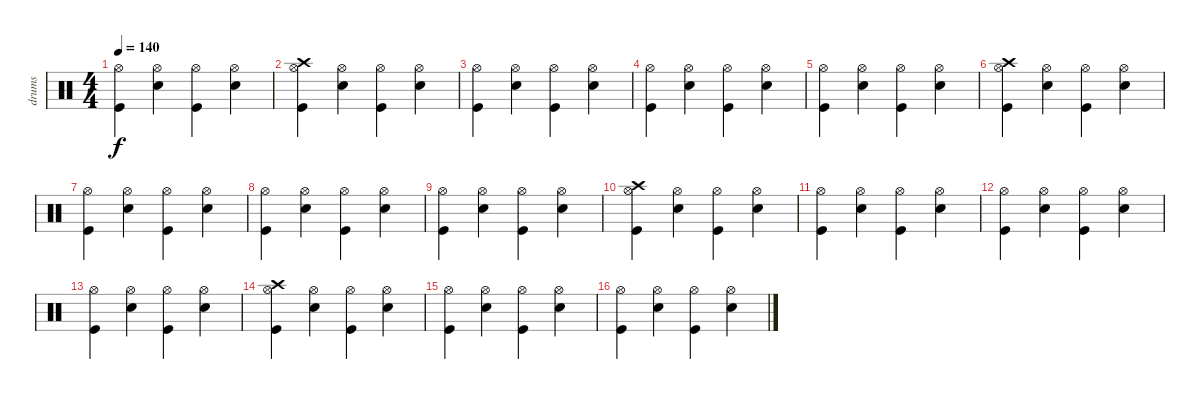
\track ("drums" "drums") {instrument percussion}
\staff {score}
\articulation defaults
\ts (4 4)
\tempo 140
\clef neutral
\ks c
("Hi-Hat (open)" "Kick (hit)").4{dy f} ("Hi-Hat (open)" "Snare (hit) 2").4 ("Hi-Hat (open)" "Kick (hit)").4 ("Hi-Hat (open)" "Snare (hit) 2").4 |
("Hi-Hat (open)" "Kick (hit)" "Crash high (hit)").4 ("Hi-Hat (open)" "Snare (hit) 2").4 ("Hi-Hat (open)" "Kick (hit)").4 ("Hi-Hat (open)" "Snare (hit) 2").4 |
("Hi-Hat (open)" "Kick (hit)").4 ("Hi-Hat (open)" "Snare (hit) 2").4 ("Hi-Hat (open)" "Kick (hit)").4 ("Hi-Hat (open)" "Snare (hit) 2").4 |
("Hi-Hat (open)" "Kick (hit)").4 ("Hi-Hat (open)" "Snare (hit) 2").4 ("Hi-Hat (open)" "Kick (hit)").4 ("Hi-Hat (open)" "Snare (hit) 2").4 |
("Hi-Hat (open)" "Kick (hit)").4 ("Hi-Hat (open)" "Snare (hit) 2").4 ("Hi-Hat (open)" "Kick (hit)").4 ("Hi-Hat (open)" "Snare (hit) 2").4 |
("Hi-Hat (open)" "Kick (hit)" "Crash high (hit)").4 ("Hi-Hat (open)" "Snare (hit) 2").4 ("Hi-Hat (open)" "Kick (hit)").4 ("Hi-Hat (open)" "Snare (hit) 2").4 |
("Hi-Hat (open)" "Kick (hit)").4 ("Hi-Hat (open)" "Snare (hit) 2").4 ("Hi-Hat (open)" "Kick (hit)").4 ("Hi-Hat (open)" "Snare (hit) 2").4 |
("Hi-Hat (open)" "Kick (hit)").4 ("Hi-Hat (open)" "Snare (hit) 2").4 ("Hi-Hat (open)" "Kick (hit)").4 ("Hi-Hat (open)" "Snare (hit) 2").4 |
("Hi-Hat (open)" "Kick (hit)").4 ("Hi-Hat (open)" "Snare (hit) 2").4 ("Hi-Hat (open)" "Kick (hit)").4 ("Hi-Hat (open)" "Snare (hit) 2").4 |
("Hi-Hat (open)" "Kick (hit)" "Crash high (hit)").4 ("Hi-Hat (open)" "Snare (hit) 2").4 ("Hi-Hat (open)" "Kick (hit)").4 ("Hi-Hat (open)" "Snare (hit) 2").4 |
("Hi-Hat (open)" "Kick (hit)").4 ("Hi-Hat (open)" "Snare (hit) 2").4 ("Hi-Hat (open)" "Kick (hit)").4 ("Hi-Hat (open)" "Snare (hit) 2").4 |
("Hi-Hat (open)" "Kick (hit)").4 ("Hi-Hat (open)" "Snare (hit) 2").4 ("Hi-Hat (open)" "Kick (hit)").4 ("Hi-Hat (open)" "Snare (hit) 2").4 |
("Hi-Hat (open)" "Kick (hit)").4 ("Hi-Hat (open)" "Snare (hit) 2").4 ("Hi-Hat (open)" "Kick (hit)").4 ("Hi-Hat (open)" "Snare (hit) 2").4 |
("Hi-Hat (open)" "Kick (hit)" "Crash high (hit)").4 ("Hi-Hat (open)" "Snare (hit) 2").4 ("Hi-Hat (open)" "Kick (hit)").4 ("Hi-Hat (open)" "Snare (hit) 2").4 |
("Hi-Hat (open)" "Kick (hit)").4 ("Hi-Hat (open)" "Snare (hit) 2").4 ("Hi-Hat (open)" "Kick (hit)").4 ("Hi-Hat (open)" "Snare (hit) 2").4 |
("Hi-Hat (open)" "Kick (hit)").4 ("Hi-Hat (open)" "Snare (hit) 2").4 ("Hi-Hat (open)" "Kick (hit)").4 ("Hi-Hat (open)" "Snare (hit) 2").4
